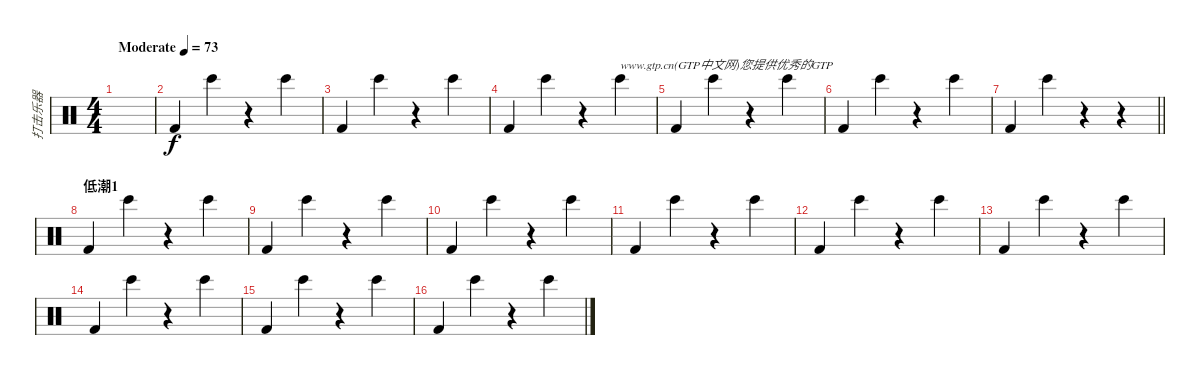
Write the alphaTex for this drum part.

\track ("打击乐器" "打击乐器") {instrument percussion}
\staff {score}
\articulation defaults
\ts (4 4)
\tempo (73 "Moderate")
\clef neutral
\ks c
|
"Kick (hit) 2".4 "Bongo High (hit)".4 r.4 "Bongo High (hit)".4 |
"Kick (hit) 2".4 "Bongo High (hit)".4 r.4 "Bongo High (hit)".4 |
"Kick (hit) 2".4 "Bongo High (hit)".4 r.4 "Bongo High (hit)".4{txt "www.gtp.cn(GTP中文网)您提供优秀的GTP"} |
"Kick (hit) 2".4 "Bongo High (hit)".4 r.4 "Bongo High (hit)".4 |
"Kick (hit) 2".4 "Bongo High (hit)".4 r.4 "Bongo High (hit)".4 |
\barLineRight lightlight "Kick (hit) 2".4 "Bongo High (hit)".4
r.4 r.4 |
\section ("" "低潮1")
"Kick (hit) 2".4 "Bongo High (hit)".4 r.4 "Bongo High (hit)".4 |
"Kick (hit) 2".4 "Bongo High (hit)".4 r.4 "Bongo High (hit)".4 |
"Kick (hit) 2".4 "Bongo High (hit)".4 r.4 "Bongo High (hit)".4 |
"Kick (hit) 2".4 "Bongo High (hit)".4 r.4 "Bongo High (hit)".4 |
"Kick (hit) 2".4 "Bongo High (hit)".4 r.4 "Bongo High (hit)".4 |
"Kick (hit) 2".4 "Bongo High (hit)".4 r.4 "Bongo High (hit)".4 |
"Kick (hit) 2".4 "Bongo High (hit)".4 r.4 "Bongo High (hit)".4 |
"Kick (hit) 2".4 "Bongo High (hit)".4 r.4 "Bongo High (hit)".4 |
"Kick (hit) 2".4 "Bongo High (hit)".4 r.4 "Bongo High (hit)".4
